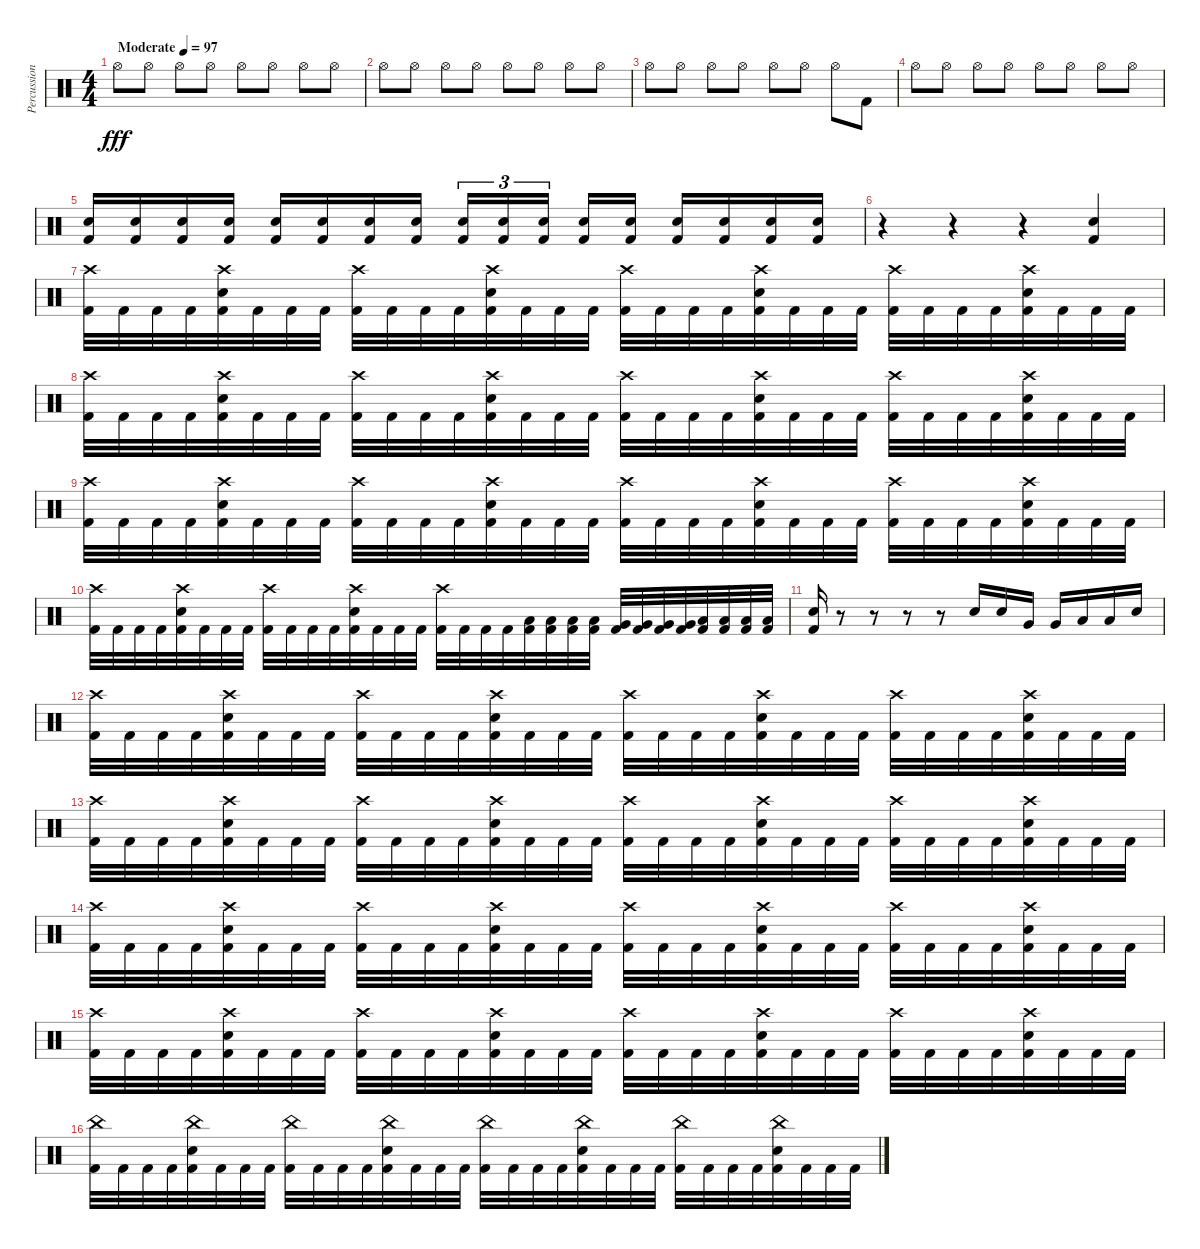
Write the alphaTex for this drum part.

\track ("Percussion" "Percussion") {instrument percussion}
\staff {score}
\articulation defaults
\ts (4 4)
\tempo (97 "Moderate")
\clef neutral
\ks c "Hi-Hat (open)".8{dy fff} "Hi-Hat (open)".8 "Hi-Hat (open)".8 "Hi-Hat (open)".8 "Hi-Hat (open)".8 "Hi-Hat (open)".8 "Hi-Hat (open)".8 "Hi-Hat (open)".8
|
"Hi-Hat (open)".8 "Hi-Hat (open)".8 "Hi-Hat (open)".8 "Hi-Hat (open)".8 "Hi-Hat (open)".8 "Hi-Hat (open)".8 "Hi-Hat (open)".8 "Hi-Hat (open)".8 |
"Hi-Hat (open)".8 "Hi-Hat (open)".8 "Hi-Hat (open)".8 "Hi-Hat (open)".8 "Hi-Hat (open)".8 "Hi-Hat (open)".8 "Hi-Hat (open)".8 "Kick (hit) 2".8 |
"Hi-Hat (open)".8 "Hi-Hat (open)".8 "Hi-Hat (open)".8 "Hi-Hat (open)".8 "Hi-Hat (open)".8 "Hi-Hat (open)".8 "Hi-Hat (open)".8 "Hi-Hat (open)".8 |
("Snare (hit) 2" "Kick (hit) 2").16 ("Snare (hit) 2" "Kick (hit) 2").16 ("Snare (hit) 2" "Kick (hit) 2").16 ("Snare (hit) 2" "Kick (hit) 2").16 ("Snare (hit) 2" "Kick (hit) 2").16 ("Snare (hit) 2" "Kick (hit) 2").16 ("Snare (hit) 2" "Kick (hit) 2").16 ("Snare (hit) 2" "Kick (hit) 2").16 ("Snare (hit) 2" "Kick (hit) 2").16{tu (3 2)} ("Snare (hit) 2" "Kick (hit) 2").16{tu (3 2)} ("Snare (hit) 2" "Kick (hit) 2").16{tu (3 2) beam splitsecondary} ("Snare (hit) 2" "Kick (hit) 2").16 ("Snare (hit) 2" "Kick (hit) 2").16 ("Snare (hit) 2" "Kick (hit) 2").16 ("Snare (hit) 2" "Kick (hit) 2").16 ("Snare (hit) 2" "Kick (hit) 2").16 ("Snare (hit) 2" "Kick (hit) 2").16 |
r.4 r.4 r.4 ("Snare (hit) 2" "Kick (hit) 2").4 |
("Crash high (hit)" "Kick (hit) 2").32 "Kick (hit) 2".32 "Kick (hit) 2".32 "Kick (hit) 2".32 ("Crash high (hit)" "Snare (hit) 2" "Kick (hit) 2").32 "Kick (hit) 2".32 "Kick (hit) 2".32 "Kick (hit) 2".32 ("Crash high (hit)" "Kick (hit) 2").32 "Kick (hit) 2".32 "Kick (hit) 2".32 "Kick (hit) 2".32 ("Crash high (hit)" "Snare (hit) 2" "Kick (hit) 2").32 "Kick (hit) 2".32 "Kick (hit) 2".32 "Kick (hit) 2".32 ("Crash high (hit)" "Kick (hit) 2").32 "Kick (hit) 2".32 "Kick (hit) 2".32 "Kick (hit) 2".32 ("Crash high (hit)" "Snare (hit) 2" "Kick (hit) 2").32 "Kick (hit) 2".32 "Kick (hit) 2".32 "Kick (hit) 2".32 ("Crash high (hit)" "Kick (hit) 2").32 "Kick (hit) 2".32 "Kick (hit) 2".32 "Kick (hit) 2".32 ("Crash high (hit)" "Snare (hit) 2" "Kick (hit) 2").32 "Kick (hit) 2".32 "Kick (hit) 2".32 "Kick (hit) 2".32 |
("Crash high (hit)" "Kick (hit) 2").32 "Kick (hit) 2".32 "Kick (hit) 2".32 "Kick (hit) 2".32 ("Crash high (hit)" "Snare (hit) 2" "Kick (hit) 2").32 "Kick (hit) 2".32 "Kick (hit) 2".32 "Kick (hit) 2".32 ("Crash high (hit)" "Kick (hit) 2").32 "Kick (hit) 2".32 "Kick (hit) 2".32 "Kick (hit) 2".32 ("Crash high (hit)" "Snare (hit) 2" "Kick (hit) 2").32 "Kick (hit) 2".32 "Kick (hit) 2".32 "Kick (hit) 2".32 ("Crash high (hit)" "Kick (hit) 2").32 "Kick (hit) 2".32 "Kick (hit) 2".32 "Kick (hit) 2".32 ("Crash high (hit)" "Snare (hit) 2" "Kick (hit) 2").32 "Kick (hit) 2".32 "Kick (hit) 2".32 "Kick (hit) 2".32 ("Crash high (hit)" "Kick (hit) 2").32 "Kick (hit) 2".32 "Kick (hit) 2".32 "Kick (hit) 2".32 ("Crash high (hit)" "Snare (hit) 2" "Kick (hit) 2").32 "Kick (hit) 2".32 "Kick (hit) 2".32 "Kick (hit) 2".32 |
("Crash high (hit)" "Kick (hit) 2").32 "Kick (hit) 2".32 "Kick (hit) 2".32 "Kick (hit) 2".32 ("Crash high (hit)" "Snare (hit) 2" "Kick (hit) 2").32 "Kick (hit) 2".32 "Kick (hit) 2".32 "Kick (hit) 2".32 ("Crash high (hit)" "Kick (hit) 2").32 "Kick (hit) 2".32 "Kick (hit) 2".32 "Kick (hit) 2".32 ("Crash high (hit)" "Snare (hit) 2" "Kick (hit) 2").32 "Kick (hit) 2".32 "Kick (hit) 2".32 "Kick (hit) 2".32 ("Crash high (hit)" "Kick (hit) 2").32 "Kick (hit) 2".32 "Kick (hit) 2".32 "Kick (hit) 2".32 ("Crash high (hit)" "Snare (hit) 2" "Kick (hit) 2").32 "Kick (hit) 2".32 "Kick (hit) 2".32 "Kick (hit) 2".32 ("Crash high (hit)" "Kick (hit) 2").32 "Kick (hit) 2".32 "Kick (hit) 2".32 "Kick (hit) 2".32 ("Crash high (hit)" "Snare (hit) 2" "Kick (hit) 2").32 "Kick (hit) 2".32 "Kick (hit) 2".32 "Kick (hit) 2".32 |
("Crash high (hit)" "Kick (hit) 2").32 "Kick (hit) 2".32 "Kick (hit) 2".32 "Kick (hit) 2".32 ("Crash high (hit)" "Snare (hit) 2" "Kick (hit) 2").32 "Kick (hit) 2".32 "Kick (hit) 2".32 "Kick (hit) 2".32 ("Crash high (hit)" "Kick (hit) 2").32 "Kick (hit) 2".32 "Kick (hit) 2".32 "Kick (hit) 2".32 ("Crash high (hit)" "Snare (hit) 2" "Kick (hit) 2").32 "Kick (hit) 2".32 "Kick (hit) 2".32 "Kick (hit) 2".32 ("Crash high (hit)" "Kick (hit) 2").32 "Kick (hit) 2".32 "Kick (hit) 2".32 "Kick (hit) 2".32 ("Low Floor Tom (hit)" "Kick (hit) 2").32 ("Low Floor Tom (hit)" "Kick (hit) 2").32 ("Low Floor Tom (hit)" "Kick (hit) 2").32 ("Low Floor Tom (hit)" "Kick (hit) 2").32 ("Very Low Tom (hit)" "Kick (hit) 2").32 ("Very Low Tom (hit)" "Kick (hit) 2").32 ("Very Low Tom (hit)" "Kick (hit) 2").32 ("Very Low Tom (hit)" "Kick (hit) 2").32 ("Low Tom (hit)" "Kick (hit) 2").32 ("Low Tom (hit)" "Kick (hit) 2").32 ("Low Tom (hit)" "Kick (hit) 2").32 ("Low Tom (hit)" "Kick (hit) 2").32 |
("Snare (hit) 2" "Kick (hit) 2").16 r.8 r.8 r.8 r.8 "Snare (hit) 2".16 "Snare (hit) 2".16 "Very Low Tom (hit)".16 "Very Low Tom (hit)".16 "Low Floor Tom (hit)".16 "Low Floor Tom (hit)".16 "Snare (hit) 2".16 |
("Crash high (hit)" "Kick (hit) 2").32 "Kick (hit) 2".32 "Kick (hit) 2".32 "Kick (hit) 2".32 ("Crash high (hit)" "Snare (hit) 2" "Kick (hit) 2").32 "Kick (hit) 2".32 "Kick (hit) 2".32 "Kick (hit) 2".32 ("Crash high (hit)" "Kick (hit) 2").32 "Kick (hit) 2".32 "Kick (hit) 2".32 "Kick (hit) 2".32 ("Crash high (hit)" "Snare (hit) 2" "Kick (hit) 2").32 "Kick (hit) 2".32 "Kick (hit) 2".32 "Kick (hit) 2".32 ("Crash high (hit)" "Kick (hit) 2").32 "Kick (hit) 2".32 "Kick (hit) 2".32 "Kick (hit) 2".32 ("Crash high (hit)" "Snare (hit) 2" "Kick (hit) 2").32 "Kick (hit) 2".32 "Kick (hit) 2".32 "Kick (hit) 2".32 ("Crash high (hit)" "Kick (hit) 2").32 "Kick (hit) 2".32 "Kick (hit) 2".32 "Kick (hit) 2".32 ("Crash high (hit)" "Snare (hit) 2" "Kick (hit) 2").32 "Kick (hit) 2".32 "Kick (hit) 2".32 "Kick (hit) 2".32 |
("Crash high (hit)" "Kick (hit) 2").32 "Kick (hit) 2".32 "Kick (hit) 2".32 "Kick (hit) 2".32 ("Crash high (hit)" "Snare (hit) 2" "Kick (hit) 2").32 "Kick (hit) 2".32 "Kick (hit) 2".32 "Kick (hit) 2".32 ("Crash high (hit)" "Kick (hit) 2").32 "Kick (hit) 2".32 "Kick (hit) 2".32 "Kick (hit) 2".32 ("Crash high (hit)" "Snare (hit) 2" "Kick (hit) 2").32 "Kick (hit) 2".32 "Kick (hit) 2".32 "Kick (hit) 2".32 ("Crash high (hit)" "Kick (hit) 2").32 "Kick (hit) 2".32 "Kick (hit) 2".32 "Kick (hit) 2".32 ("Crash high (hit)" "Snare (hit) 2" "Kick (hit) 2").32 "Kick (hit) 2".32 "Kick (hit) 2".32 "Kick (hit) 2".32 ("Crash high (hit)" "Kick (hit) 2").32 "Kick (hit) 2".32 "Kick (hit) 2".32 "Kick (hit) 2".32 ("Crash high (hit)" "Snare (hit) 2" "Kick (hit) 2").32 "Kick (hit) 2".32 "Kick (hit) 2".32 "Kick (hit) 2".32 |
("Crash high (hit)" "Kick (hit) 2").32 "Kick (hit) 2".32 "Kick (hit) 2".32 "Kick (hit) 2".32 ("Crash high (hit)" "Snare (hit) 2" "Kick (hit) 2").32 "Kick (hit) 2".32 "Kick (hit) 2".32 "Kick (hit) 2".32 ("Crash high (hit)" "Kick (hit) 2").32 "Kick (hit) 2".32 "Kick (hit) 2".32 "Kick (hit) 2".32 ("Crash high (hit)" "Snare (hit) 2" "Kick (hit) 2").32 "Kick (hit) 2".32 "Kick (hit) 2".32 "Kick (hit) 2".32 ("Crash high (hit)" "Kick (hit) 2").32 "Kick (hit) 2".32 "Kick (hit) 2".32 "Kick (hit) 2".32 ("Crash high (hit)" "Snare (hit) 2" "Kick (hit) 2").32 "Kick (hit) 2".32 "Kick (hit) 2".32 "Kick (hit) 2".32 ("Crash high (hit)" "Kick (hit) 2").32 "Kick (hit) 2".32 "Kick (hit) 2".32 "Kick (hit) 2".32 ("Crash high (hit)" "Snare (hit) 2" "Kick (hit) 2").32 "Kick (hit) 2".32 "Kick (hit) 2".32 "Kick (hit) 2".32 |
("Crash high (hit)" "Kick (hit) 2").32 "Kick (hit) 2".32 "Kick (hit) 2".32 "Kick (hit) 2".32 ("Crash high (hit)" "Snare (hit) 2" "Kick (hit) 2").32 "Kick (hit) 2".32 "Kick (hit) 2".32 "Kick (hit) 2".32 ("Crash high (hit)" "Kick (hit) 2").32 "Kick (hit) 2".32 "Kick (hit) 2".32 "Kick (hit) 2".32 ("Crash high (hit)" "Snare (hit) 2" "Kick (hit) 2").32 "Kick (hit) 2".32 "Kick (hit) 2".32 "Kick (hit) 2".32 ("Crash high (hit)" "Kick (hit) 2").32 "Kick (hit) 2".32 "Kick (hit) 2".32 "Kick (hit) 2".32 ("Crash high (hit)" "Snare (hit) 2" "Kick (hit) 2").32 "Kick (hit) 2".32 "Kick (hit) 2".32 "Kick (hit) 2".32 ("Crash high (hit)" "Kick (hit) 2").32 "Kick (hit) 2".32 "Kick (hit) 2".32 "Kick (hit) 2".32 ("Crash high (hit)" "Snare (hit) 2" "Kick (hit) 2").32 "Kick (hit) 2".32 "Kick (hit) 2".32 "Kick (hit) 2".32 |
("China (hit)" "Kick (hit) 2").32 "Kick (hit) 2".32 "Kick (hit) 2".32 "Kick (hit) 2".32 ("China (hit)" "Snare (hit) 2" "Kick (hit) 2").32 "Kick (hit) 2".32 "Kick (hit) 2".32 "Kick (hit) 2".32 ("China (hit)" "Kick (hit) 2").32 "Kick (hit) 2".32 "Kick (hit) 2".32 "Kick (hit) 2".32 ("China (hit)" "Snare (hit) 2" "Kick (hit) 2").32 "Kick (hit) 2".32 "Kick (hit) 2".32 "Kick (hit) 2".32 ("China (hit)" "Kick (hit) 2").32 "Kick (hit) 2".32 "Kick (hit) 2".32 "Kick (hit) 2".32 ("China (hit)" "Snare (hit) 2" "Kick (hit) 2").32 "Kick (hit) 2".32 "Kick (hit) 2".32 "Kick (hit) 2".32 ("China (hit)" "Kick (hit) 2").32 "Kick (hit) 2".32 "Kick (hit) 2".32 "Kick (hit) 2".32 ("China (hit)" "Snare (hit) 2" "Kick (hit) 2").32 "Kick (hit) 2".32 "Kick (hit) 2".32 "Kick (hit) 2".32
